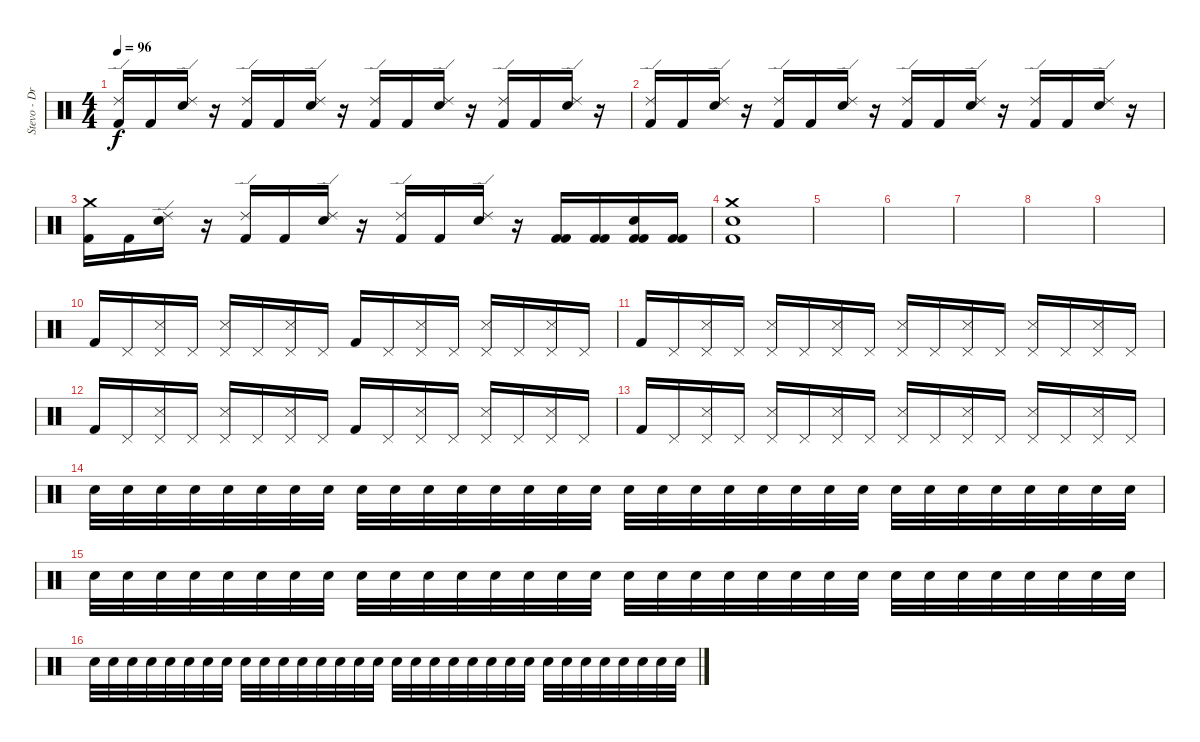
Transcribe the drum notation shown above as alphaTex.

\track ("Stevo - Drums" "Stevo - Dr") {instrument percussion}
\staff {score}
\articulation defaults
\ts (4 4)
\tempo 96
\clef neutral
\ks c
("Ride (edge) 2" "Kick (hit) 2").16{dy f} "Kick (hit) 2".16 ("Ride (edge) 2" "Electric Snare (hit)").16 r.16 ("Ride (edge) 2" "Kick (hit) 2").16 "Kick (hit) 2".16 ("Ride (edge) 2" "Electric Snare (hit)").16 r.16 ("Ride (edge) 2" "Kick (hit) 2").16 "Kick (hit) 2".16 ("Ride (edge) 2" "Electric Snare (hit)").16 r.16 ("Ride (edge) 2" "Kick (hit) 2").16 "Kick (hit) 2".16 ("Ride (edge) 2" "Electric Snare (hit)").16 r.16 |
("Ride (edge) 2" "Kick (hit) 2").16 "Kick (hit) 2".16 ("Ride (edge) 2" "Electric Snare (hit)").16 r.16 ("Ride (edge) 2" "Kick (hit) 2").16 "Kick (hit) 2".16 ("Ride (edge) 2" "Electric Snare (hit)").16 r.16 ("Ride (edge) 2" "Kick (hit) 2").16 "Kick (hit) 2".16 ("Ride (edge) 2" "Electric Snare (hit)").16 r.16 ("Ride (edge) 2" "Kick (hit) 2").16 "Kick (hit) 2".16 ("Ride (edge) 2" "Electric Snare (hit)").16 r.16 |
("Crash medium (hit)" "Kick (hit) 2").16 "Kick (hit) 2".16 ("Ride (edge) 2" "Electric Snare (hit)").16 r.16 ("Ride (edge) 2" "Kick (hit) 2").16 "Kick (hit) 2".16 ("Ride (edge) 2" "Electric Snare (hit)").16 r.16 ("Ride (edge) 2" "Kick (hit) 2").16 "Kick (hit) 2".16 ("Ride (edge) 2" "Electric Snare (hit)").16 r.16 ("Kick (hit) 2" "Kick (hit) 2").16 ("Kick (hit) 2" "Kick (hit) 2").16 ("Kick (hit) 2" "Electric Snare (hit)" "Kick (hit) 2").16 ("Kick (hit) 2" "Kick (hit) 2").16 |
("Crash medium (hit)" "Electric Snare (hit)" "Kick (hit) 2").1 |
|
|
|
|
|
"Kick (hit) 2".16 "Pedal Hi-Hat (hit)".16 ("Metronome (hit)" "Pedal Hi-Hat (hit)").16 "Pedal Hi-Hat (hit)".16 ("Metronome (hit)" "Pedal Hi-Hat (hit)").16 "Pedal Hi-Hat (hit)".16 ("Metronome (hit)" "Pedal Hi-Hat (hit)").16 "Pedal Hi-Hat (hit)".16 "Kick (hit) 2".16 "Pedal Hi-Hat (hit)".16 ("Metronome (hit)" "Pedal Hi-Hat (hit)").16 "Pedal Hi-Hat (hit)".16 ("Metronome (hit)" "Pedal Hi-Hat (hit)").16 "Pedal Hi-Hat (hit)".16 ("Metronome (hit)" "Pedal Hi-Hat (hit)").16 "Pedal Hi-Hat (hit)".16 |
"Kick (hit) 2".16 "Pedal Hi-Hat (hit)".16 ("Metronome (hit)" "Pedal Hi-Hat (hit)").16 "Pedal Hi-Hat (hit)".16 ("Metronome (hit)" "Pedal Hi-Hat (hit)").16 "Pedal Hi-Hat (hit)".16 ("Metronome (hit)" "Pedal Hi-Hat (hit)").16 "Pedal Hi-Hat (hit)".16 ("Metronome (hit)" "Pedal Hi-Hat (hit)").16 "Pedal Hi-Hat (hit)".16 ("Metronome (hit)" "Pedal Hi-Hat (hit)").16 "Pedal Hi-Hat (hit)".16 ("Metronome (hit)" "Pedal Hi-Hat (hit)").16 "Pedal Hi-Hat (hit)".16 ("Metronome (hit)" "Pedal Hi-Hat (hit)").16 "Pedal Hi-Hat (hit)".16 |
"Kick (hit) 2".16 "Pedal Hi-Hat (hit)".16 ("Metronome (hit)" "Pedal Hi-Hat (hit)").16 "Pedal Hi-Hat (hit)".16 ("Metronome (hit)" "Pedal Hi-Hat (hit)").16 "Pedal Hi-Hat (hit)".16 ("Metronome (hit)" "Pedal Hi-Hat (hit)").16 "Pedal Hi-Hat (hit)".16 "Kick (hit) 2".16 "Pedal Hi-Hat (hit)".16 ("Metronome (hit)" "Pedal Hi-Hat (hit)").16 "Pedal Hi-Hat (hit)".16 ("Metronome (hit)" "Pedal Hi-Hat (hit)").16 "Pedal Hi-Hat (hit)".16 ("Metronome (hit)" "Pedal Hi-Hat (hit)").16 "Pedal Hi-Hat (hit)".16 |
"Kick (hit) 2".16 "Pedal Hi-Hat (hit)".16 ("Metronome (hit)" "Pedal Hi-Hat (hit)").16 "Pedal Hi-Hat (hit)".16 ("Metronome (hit)" "Pedal Hi-Hat (hit)").16 "Pedal Hi-Hat (hit)".16 ("Metronome (hit)" "Pedal Hi-Hat (hit)").16 "Pedal Hi-Hat (hit)".16 ("Metronome (hit)" "Pedal Hi-Hat (hit)").16 "Pedal Hi-Hat (hit)".16 ("Metronome (hit)" "Pedal Hi-Hat (hit)").16 "Pedal Hi-Hat (hit)".16 ("Metronome (hit)" "Pedal Hi-Hat (hit)").16 "Pedal Hi-Hat (hit)".16 ("Metronome (hit)" "Pedal Hi-Hat (hit)").16 "Pedal Hi-Hat (hit)".16 |
"Electric Snare (hit)".32{volume 4} "Electric Snare (hit)".32{volume 13} "Electric Snare (hit)".32 "Electric Snare (hit)".32 "Electric Snare (hit)".32 "Electric Snare (hit)".32 "Electric Snare (hit)".32 "Electric Snare (hit)".32 "Electric Snare (hit)".32 "Electric Snare (hit)".32 "Electric Snare (hit)".32 "Electric Snare (hit)".32 "Electric Snare (hit)".32 "Electric Snare (hit)".32 "Electric Snare (hit)".32 "Electric Snare (hit)".32 "Electric Snare (hit)".32 "Electric Snare (hit)".32 "Electric Snare (hit)".32 "Electric Snare (hit)".32 "Electric Snare (hit)".32 "Electric Snare (hit)".32 "Electric Snare (hit)".32 "Electric Snare (hit)".32 "Electric Snare (hit)".32 "Electric Snare (hit)".32 "Electric Snare (hit)".32 "Electric Snare (hit)".32 "Electric Snare (hit)".32 "Electric Snare (hit)".32 "Electric Snare (hit)".32 "Electric Snare (hit)".32 |
"Electric Snare (hit)".32 "Electric Snare (hit)".32 "Electric Snare (hit)".32 "Electric Snare (hit)".32 "Electric Snare (hit)".32 "Electric Snare (hit)".32 "Electric Snare (hit)".32 "Electric Snare (hit)".32 "Electric Snare (hit)".32 "Electric Snare (hit)".32 "Electric Snare (hit)".32 "Electric Snare (hit)".32 "Electric Snare (hit)".32 "Electric Snare (hit)".32 "Electric Snare (hit)".32 "Electric Snare (hit)".32 "Electric Snare (hit)".32 "Electric Snare (hit)".32 "Electric Snare (hit)".32 "Electric Snare (hit)".32 "Electric Snare (hit)".32 "Electric Snare (hit)".32 "Electric Snare (hit)".32 "Electric Snare (hit)".32 "Electric Snare (hit)".32 "Electric Snare (hit)".32 "Electric Snare (hit)".32 "Electric Snare (hit)".32 "Electric Snare (hit)".32 "Electric Snare (hit)".32 "Electric Snare (hit)".32 "Electric Snare (hit)".32 |
"Electric Snare (hit)".32 "Electric Snare (hit)".32 "Electric Snare (hit)".32 "Electric Snare (hit)".32 "Electric Snare (hit)".32 "Electric Snare (hit)".32 "Electric Snare (hit)".32 "Electric Snare (hit)".32 "Electric Snare (hit)".32 "Electric Snare (hit)".32 "Electric Snare (hit)".32 "Electric Snare (hit)".32 "Electric Snare (hit)".32 "Electric Snare (hit)".32 "Electric Snare (hit)".32 "Electric Snare (hit)".32 "Electric Snare (hit)".32 "Electric Snare (hit)".32 "Electric Snare (hit)".32 "Electric Snare (hit)".32 "Electric Snare (hit)".32 "Electric Snare (hit)".32 "Electric Snare (hit)".32 "Electric Snare (hit)".32 "Electric Snare (hit)".32 "Electric Snare (hit)".32 "Electric Snare (hit)".32 "Electric Snare (hit)".32 "Electric Snare (hit)".32 "Electric Snare (hit)".32 "Electric Snare (hit)".32 "Electric Snare (hit)".32
